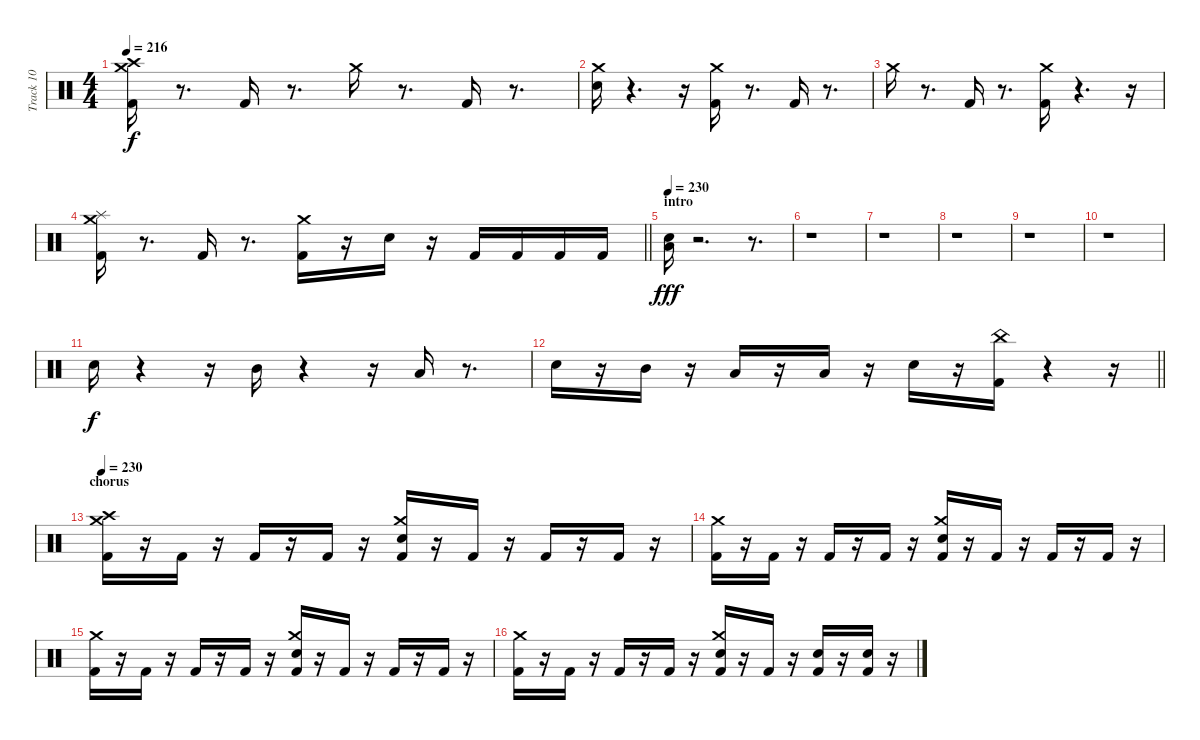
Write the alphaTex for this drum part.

\track ("Track 10" "Track 10") {instrument percussion}
\staff {score}
\articulation defaults
\ts (4 4)
\tempo 216
\clef neutral
\ks c
("Kick (hit) 2" "Crash high (hit)" "Crash medium (hit)").16{dy f} r.8{d} "Kick (hit) 2".16 r.8{d} "Crash medium (hit)".16 r.8{d} "Kick (hit) 2".16 r.8{d} |
("Snare (hit) 2" "Crash medium (hit)").16 r.4{d} r.16 ("Kick (hit) 2" "Crash medium (hit)").16 r.8{d} "Kick (hit) 2".16 r.8{d} |
"Crash medium (hit)".16 r.8{d} "Kick (hit) 2".16 r.8{d} ("Kick (hit) 2" "Crash medium (hit)").16 r.4{d} r.16 |
\barLineRight lightlight
("Kick (hit) 2" "Splash (hit)" "Crash medium (hit)").16 r.8{d} "Kick (hit) 2".16 r.8{d} ("Kick (hit) 2" "Crash medium (hit)").16 r.16 "Snare (hit) 2".16 r.16 "Kick (hit) 2".16 "Kick (hit) 2".16 "Kick (hit) 2".16 "Kick (hit) 2".16 |
\section ("" "intro")
\tempo 230
("Snare (hit) 2" "Low Floor Tom (hit)").16{dy fff} r.2{d} r.8{d} |
r.1 |
r.1 |
r.1 |
r.1 |
r.1 |
"Snare (hit) 2".16{dy f} r.4 r.16 "Mid Tom (hit)".16 r.4 r.16 "Low Tom (hit)".16 r.8{d} |
\barLineRight lightlight "Snare (hit) 2".16
r.16 "Mid Tom (hit)".16 r.16 "Low Tom (hit)".16 r.16 "Low Tom (hit)".16 r.16 "Snare (hit) 2".16 r.16 ("Kick (hit) 2" "China (hit)").16 r.4 r.16 |
\section ("" "chorus")
\tempo 230
("Kick (hit) 2" "Crash high (hit)" "Crash medium (hit)").16 r.16 "Kick (hit) 2".16 r.16 "Kick (hit) 2".16 r.16 "Kick (hit) 2".16 r.16 ("Kick (hit) 2" "Snare (hit) 2" "Crash medium (hit)").16 r.16 "Kick (hit) 2".16 r.16 "Kick (hit) 2".16 r.16 "Kick (hit) 2".16 r.16 |
("Kick (hit) 2" "Crash medium (hit)").16 r.16 "Kick (hit) 2".16 r.16 "Kick (hit) 2".16 r.16 "Kick (hit) 2".16 r.16 ("Kick (hit) 2" "Snare (hit) 2" "Crash medium (hit)").16 r.16 "Kick (hit) 2".16 r.16 "Kick (hit) 2".16 r.16 "Kick (hit) 2".16 r.16 |
("Kick (hit) 2" "Crash medium (hit)").16 r.16 "Kick (hit) 2".16 r.16 "Kick (hit) 2".16 r.16 "Kick (hit) 2".16 r.16 ("Kick (hit) 2" "Snare (hit) 2" "Crash medium (hit)").16 r.16 "Kick (hit) 2".16 r.16 "Kick (hit) 2".16 r.16 "Kick (hit) 2".16 r.16 |
("Kick (hit) 2" "Crash medium (hit)").16 r.16 "Kick (hit) 2".16 r.16 "Kick (hit) 2".16 r.16 "Kick (hit) 2".16 r.16 ("Kick (hit) 2" "Snare (hit) 2" "Crash medium (hit)").16 r.16 "Kick (hit) 2".16 r.16 ("Kick (hit) 2" "Snare (hit) 2").16 r.16 ("Kick (hit) 2" "Snare (hit) 2").16 r.16
